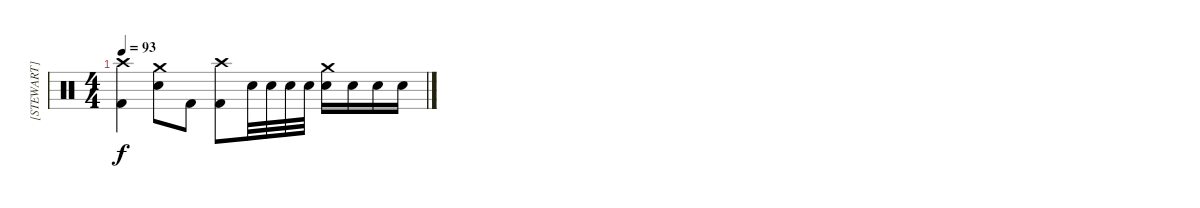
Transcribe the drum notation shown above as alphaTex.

\track ("[STEWART]" "[STEWART]") {instrument percussion}
\staff {score}
\articulation defaults
\ts (4 4)
\tempo 93
\clef neutral
\ks c
("Crash high (hit)" "Kick (hit) 2").4{dy f} ("Crash medium (hit)" "Electric Snare (hit)").8 "Kick (hit) 2".8 ("Crash high (hit)" "Kick (hit) 2").8 "Electric Snare (hit)".32 "Electric Snare (hit)".32 "Electric Snare (hit)".32 "Electric Snare (hit)".32 ("Crash medium (hit)" "Electric Snare (hit)").16 "Electric Snare (hit)".16 "Electric Snare (hit)".16 "Electric Snare (hit)".16
